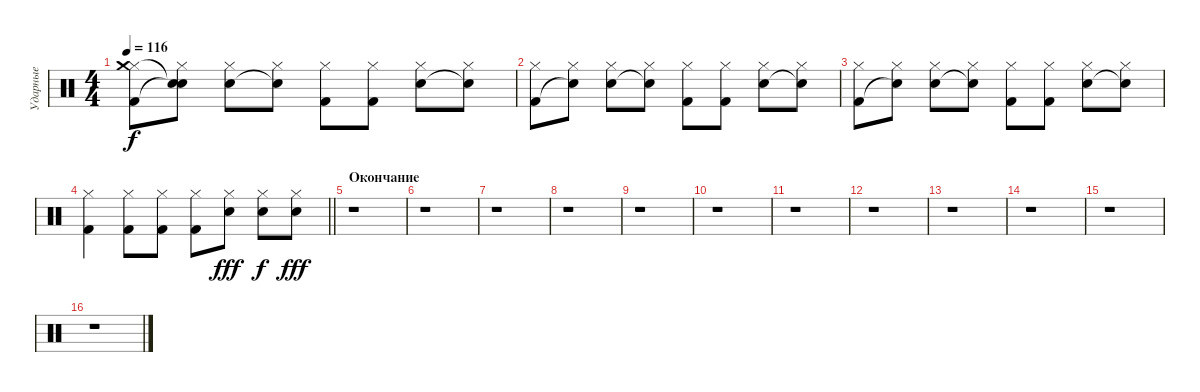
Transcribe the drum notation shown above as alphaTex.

\track ("Ударные" "Ударные") {instrument percussion}
\staff {score}
\articulation defaults
\ts (4 4)
\tempo 116
\clef neutral
\ks c
("Hi-Hat (closed)" "Crash medium (hit)" "Kick (hit) 2").8{dy f} ("Hi-Hat (closed)" "Snare (hit)"{t} "Snare (hit)"{t}).8 ("Hi-Hat (closed)" "Snare (hit) 2").8 ("Hi-Hat (closed)" "Snare (hit)"{t}).8 ("Hi-Hat (closed)" "Kick (hit) 2").8 ("Hi-Hat (closed)" "Kick (hit) 2").8 ("Hi-Hat (closed)" "Snare (hit) 2").8 ("Hi-Hat (closed)" "Snare (hit)"{t}).8 |
("Hi-Hat (closed)" "Kick (hit) 2").8 ("Hi-Hat (closed)" "Snare (hit)"{t}).8 ("Hi-Hat (closed)" "Snare (hit) 2").8 ("Hi-Hat (closed)" "Snare (hit)"{t}).8 ("Hi-Hat (closed)" "Kick (hit) 2").8 ("Hi-Hat (closed)" "Kick (hit) 2").8 ("Hi-Hat (closed)" "Snare (hit) 2").8 ("Hi-Hat (closed)" "Snare (hit)"{t}).8 |
("Hi-Hat (closed)" "Kick (hit) 2").8 ("Hi-Hat (closed)" "Snare (hit)"{t}).8 ("Hi-Hat (closed)" "Snare (hit) 2").8 ("Hi-Hat (closed)" "Snare (hit)"{t}).8 ("Hi-Hat (closed)" "Kick (hit) 2").8 ("Hi-Hat (closed)" "Kick (hit) 2").8 ("Hi-Hat (closed)" "Snare (hit) 2").8 ("Hi-Hat (closed)" "Snare (hit)"{t}).8 |
\barLineRight lightlight
("Hi-Hat (closed)" "Kick (hit) 2").4 ("Hi-Hat (closed)" "Kick (hit) 2").8 ("Hi-Hat (closed)" "Kick (hit) 2").8 ("Hi-Hat (closed)" "Kick (hit) 2").8 ("Hi-Hat (closed)" "Snare (hit) 2").8{dy fff} ("Hi-Hat (closed)" "Snare (hit) 2").8{dy f} ("Hi-Hat (closed)" "Snare (hit) 2").8{dy fff} |
\section ("" "Окончание")
r.1 |
r.1 |
r.1 |
r.1 |
r.1 |
r.1 |
r.1 |
r.1 |
r.1 |
r.1 |
r.1 |
r.1
